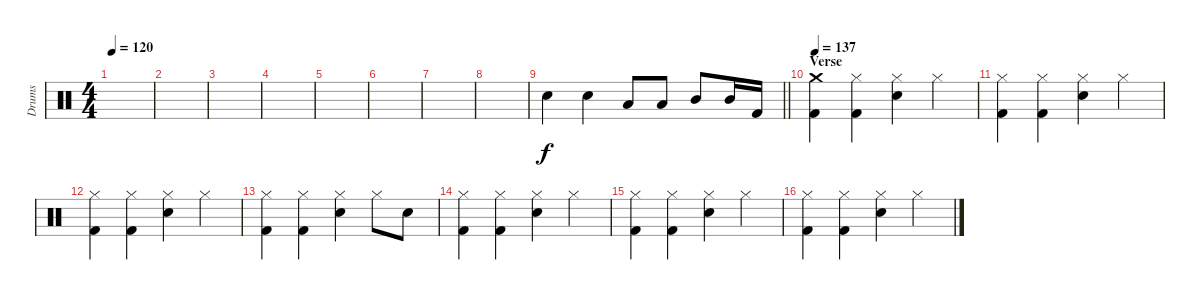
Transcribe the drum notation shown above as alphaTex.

\track ("Drums" "Drums") {mute instrument percussion}
\staff {score}
\articulation defaults
\ts (4 4)
\tempo 120
\clef neutral
\ks c
|
|
|
|
|
|
|
|
\barLineRight lightlight "Snare (hit) 2".4{dy f} "Snare (hit) 2".4 "Low Tom (hit)".8 "Low Tom (hit)".8 "Mid Tom (hit)".8 "Mid Tom (hit)".16 "Kick (hit) 2".16
|
\section ("" "Verse")
\tempo 137
("Crash medium (hit)" "Kick (hit) 2").4 ("Hi-Hat (closed)" "Kick (hit) 2").4 ("Hi-Hat (closed)" "Snare (hit) 2").4 "Hi-Hat (closed)".4 |
("Hi-Hat (closed)" "Kick (hit) 2").4 ("Hi-Hat (closed)" "Kick (hit) 2").4 ("Hi-Hat (closed)" "Snare (hit) 2").4 "Hi-Hat (closed)".4 |
("Hi-Hat (closed)" "Kick (hit) 2").4 ("Hi-Hat (closed)" "Kick (hit) 2").4 ("Hi-Hat (closed)" "Snare (hit) 2").4 "Hi-Hat (closed)".4 |
("Hi-Hat (closed)" "Kick (hit) 2").4 ("Hi-Hat (closed)" "Kick (hit) 2").4 ("Hi-Hat (closed)" "Snare (hit) 2").4 "Hi-Hat (closed)".8 "Snare (hit) 2".8 |
("Hi-Hat (closed)" "Kick (hit) 2").4 ("Hi-Hat (closed)" "Kick (hit) 2").4 ("Hi-Hat (closed)" "Snare (hit) 2").4 "Hi-Hat (closed)".4 |
("Hi-Hat (closed)" "Kick (hit) 2").4 ("Hi-Hat (closed)" "Kick (hit) 2").4 ("Hi-Hat (closed)" "Snare (hit) 2").4 "Hi-Hat (closed)".4 |
("Hi-Hat (closed)" "Kick (hit) 2").4 ("Hi-Hat (closed)" "Kick (hit) 2").4 ("Hi-Hat (closed)" "Snare (hit) 2").4 "Hi-Hat (closed)".4
